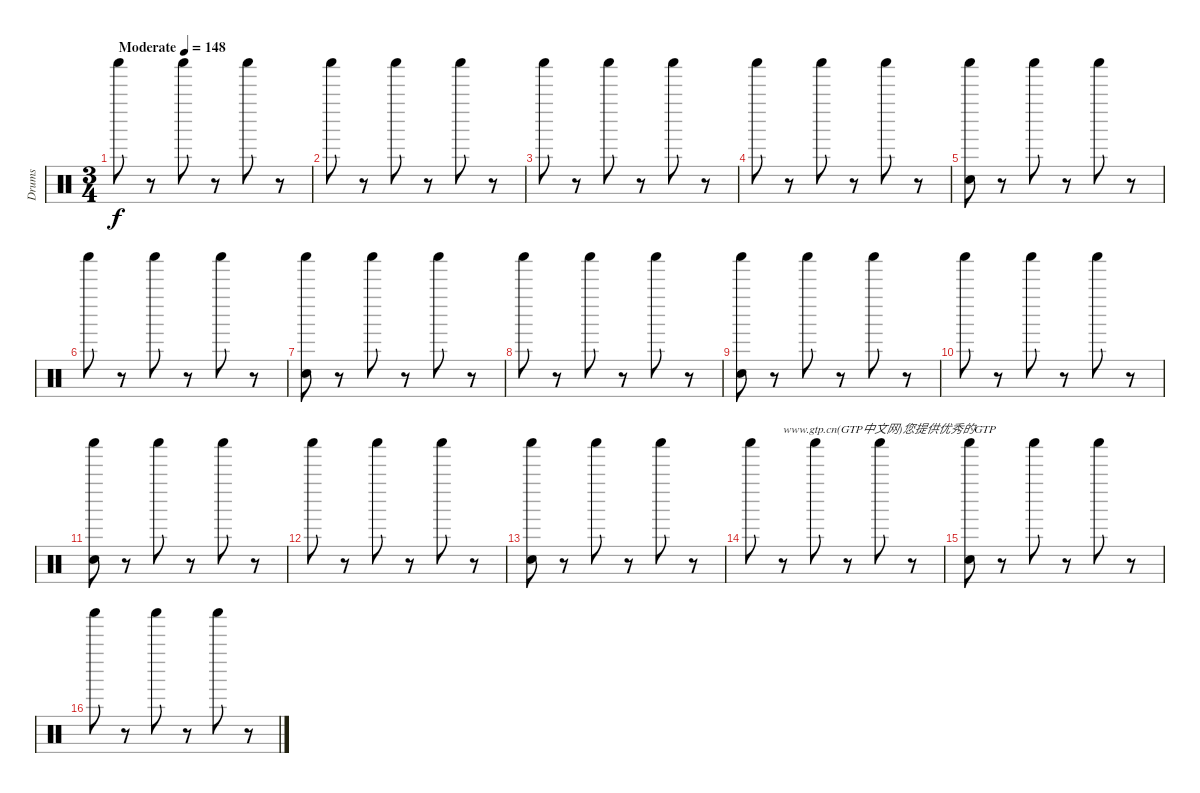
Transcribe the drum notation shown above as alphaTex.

\track ("Drums" "Drums") {instrument percussion}
\staff {score}
\articulation defaults
\ts (3 4)
\tempo (148 "Moderate")
\clef neutral
\ks c "Shaker (hit)".8{dy f}
r.8 "Shaker (hit)".8 r.8 "Shaker (hit)".8 r.8 |
"Shaker (hit)".8 r.8 "Shaker (hit)".8 r.8 "Shaker (hit)".8 r.8 |
"Shaker (hit)".8 r.8 "Shaker (hit)".8 r.8 "Shaker (hit)".8 r.8 |
"Shaker (hit)".8 r.8 "Shaker (hit)".8 r.8 "Shaker (hit)".8 r.8 |
("Shaker (hit)" "Hand Clap (hit)").8 r.8 "Shaker (hit)".8 r.8 "Shaker (hit)".8 r.8 |
"Shaker (hit)".8 r.8 "Shaker (hit)".8 r.8 "Shaker (hit)".8 r.8 |
("Shaker (hit)" "Hand Clap (hit)").8 r.8 "Shaker (hit)".8 r.8 "Shaker (hit)".8 r.8 |
"Shaker (hit)".8 r.8 "Shaker (hit)".8 r.8 "Shaker (hit)".8 r.8 |
("Shaker (hit)" "Hand Clap (hit)").8 r.8 "Shaker (hit)".8 r.8 "Shaker (hit)".8 r.8 |
"Shaker (hit)".8 r.8 "Shaker (hit)".8 r.8 "Shaker (hit)".8 r.8 |
("Shaker (hit)" "Hand Clap (hit)").8 r.8 "Shaker (hit)".8 r.8 "Shaker (hit)".8 r.8 |
"Shaker (hit)".8 r.8 "Shaker (hit)".8 r.8 "Shaker (hit)".8 r.8 |
("Shaker (hit)" "Hand Clap (hit)").8 r.8 "Shaker (hit)".8 r.8 "Shaker (hit)".8 r.8 |
"Shaker (hit)".8 r.8{txt "www.gtp.cn(GTP中文网)您提供优秀的GTP"} "Shaker (hit)".8 r.8 "Shaker (hit)".8 r.8 |
("Shaker (hit)" "Hand Clap (hit)").8 r.8 "Shaker (hit)".8 r.8 "Shaker (hit)".8 r.8 |
"Shaker (hit)".8 r.8 "Shaker (hit)".8 r.8 "Shaker (hit)".8 r.8
